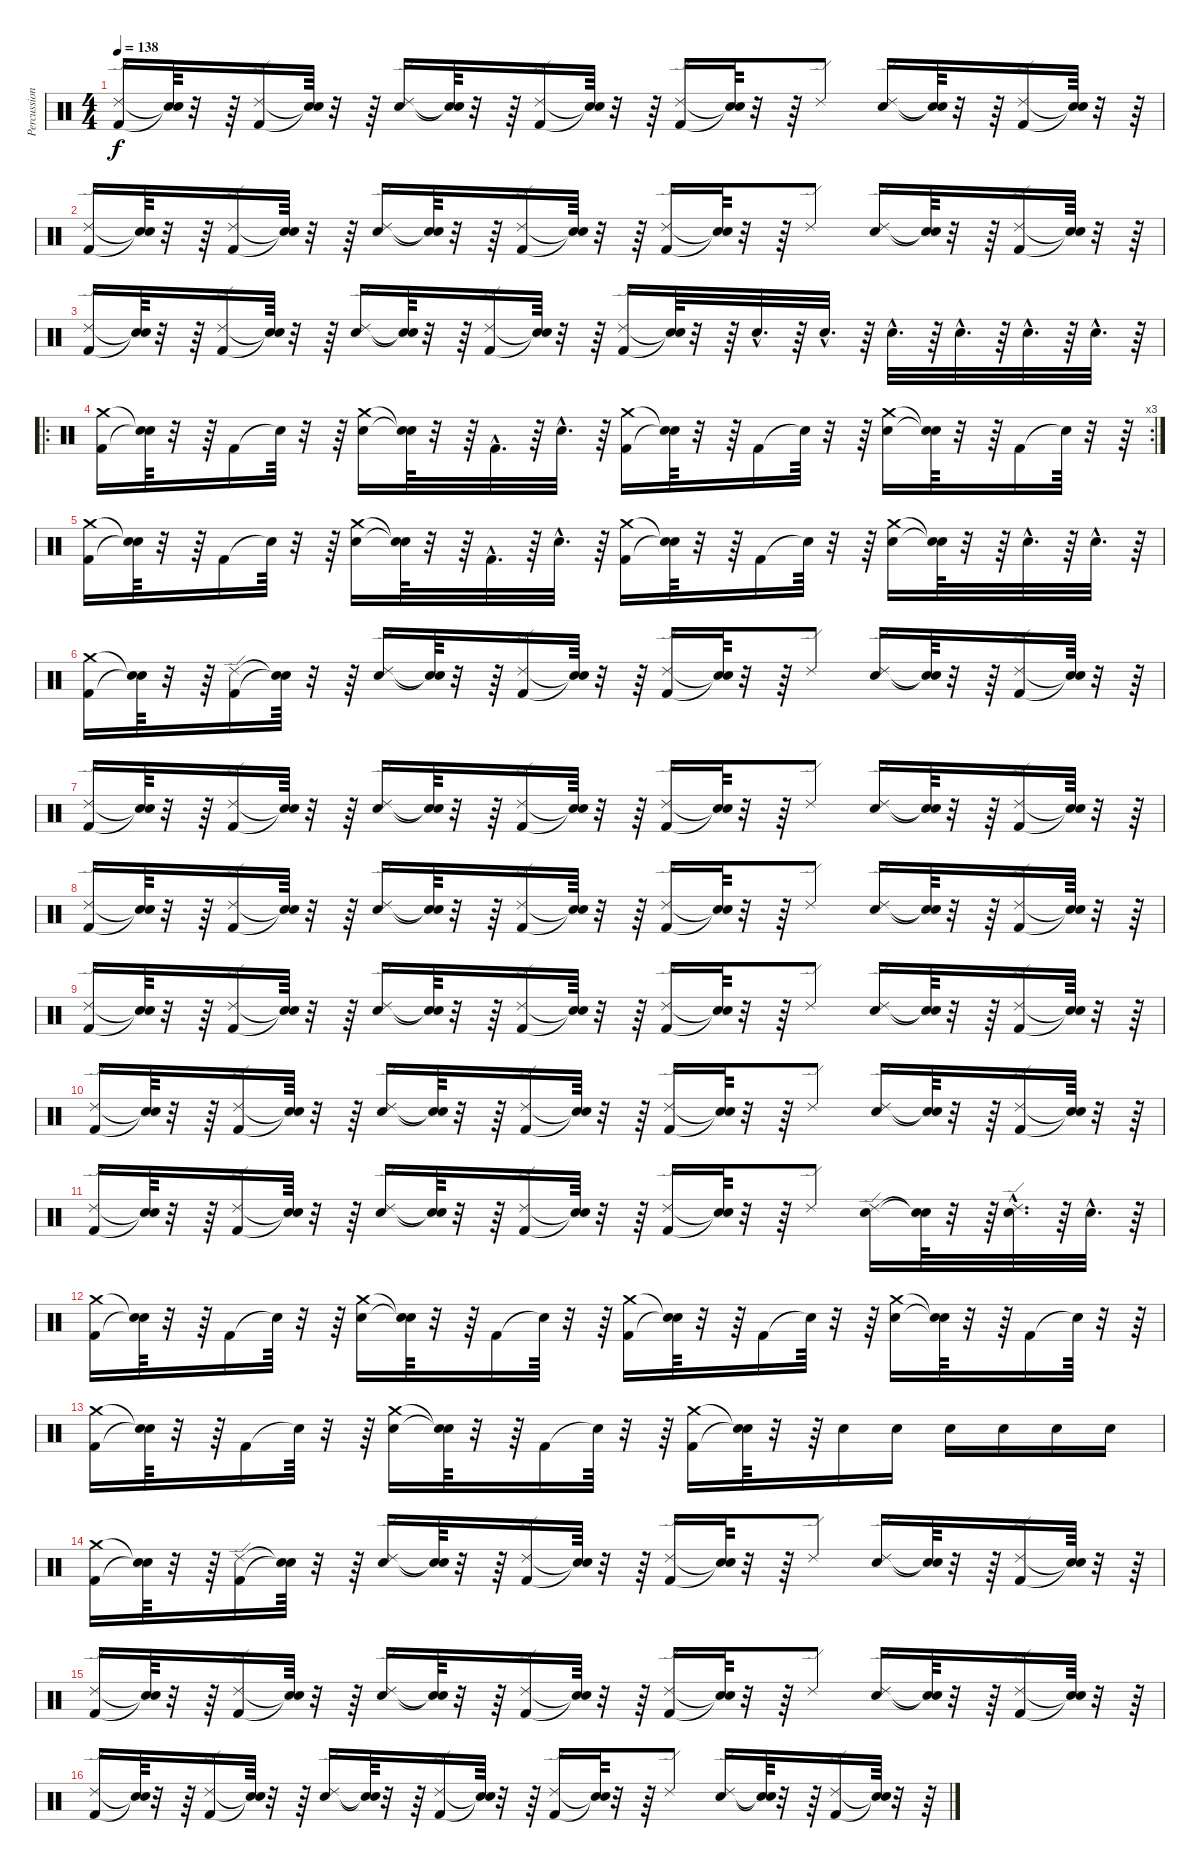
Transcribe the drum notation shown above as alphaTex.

\track ("Percussions" "Percussion") {instrument percussion}
\staff {score}
\articulation defaults
\ts (4 4)
\tempo 138
\clef neutral
\ks c
("Kick (hit) 2" "Ride (edge) 2").16{dy f} ("Snare (hit)"{t} "Snare (hit)"{t}).64 r.32 r.64 ("Kick (hit) 2" "Ride (edge) 2").16 ("Snare (hit)"{t} "Snare (hit)"{t}).64 r.32 r.64 ("Electric Snare (hit)" "Ride (edge) 2").16 ("Snare (hit)"{t} "Snare (hit)"{t}).64 r.32 r.64 ("Kick (hit) 2" "Ride (edge) 2").16 ("Snare (hit)"{t} "Snare (hit)"{t}).64 r.32 r.64 ("Kick (hit) 2" "Ride (edge) 2").16 ("Snare (hit)"{t} "Snare (hit)"{t}).64 r.32 r.64 "Ride (edge) 2".8 ("Electric Snare (hit)" "Ride (edge) 2").16 ("Snare (hit)"{t} "Snare (hit)"{t}).64 r.32 r.64 ("Kick (hit) 2" "Ride (edge) 2").16 ("Snare (hit)"{t} "Snare (hit)"{t}).64 r.32 r.64 |
("Kick (hit) 2" "Ride (edge) 2").16 ("Snare (hit)"{t} "Snare (hit)"{t}).64 r.32 r.64 ("Kick (hit) 2" "Ride (edge) 2").16 ("Snare (hit)"{t} "Snare (hit)"{t}).64 r.32 r.64 ("Electric Snare (hit)" "Ride (edge) 2").16 ("Snare (hit)"{t} "Snare (hit)"{t}).64 r.32 r.64 ("Kick (hit) 2" "Ride (edge) 2").16 ("Snare (hit)"{t} "Snare (hit)"{t}).64 r.32 r.64 ("Kick (hit) 2" "Ride (edge) 2").16 ("Snare (hit)"{t} "Snare (hit)"{t}).64 r.32 r.64 "Ride (edge) 2".8 ("Electric Snare (hit)" "Ride (edge) 2").16 ("Snare (hit)"{t} "Snare (hit)"{t}).64 r.32 r.64 ("Kick (hit) 2" "Ride (edge) 2").16 ("Snare (hit)"{t} "Snare (hit)"{t}).64 r.32 r.64 |
("Kick (hit) 2" "Ride (edge) 2").16 ("Snare (hit)"{t} "Snare (hit)"{t}).64 r.32 r.64 ("Kick (hit) 2" "Ride (edge) 2").16 ("Snare (hit)"{t} "Snare (hit)"{t}).64 r.32 r.64 ("Electric Snare (hit)" "Ride (edge) 2").16 ("Snare (hit)"{t} "Snare (hit)"{t}).64 r.32 r.64 ("Kick (hit) 2" "Ride (edge) 2").16 ("Snare (hit)"{t} "Snare (hit)"{t}).64 r.32 r.64 ("Kick (hit) 2" "Ride (edge) 2").16 ("Snare (hit)"{t} "Snare (hit)"{t}).64 r.32 r.64 "Electric Snare (hit)"{hac}.32{d} r.64 "Electric Snare (hit)"{hac}.32{d} r.64 "Electric Snare (hit)"{hac}.32{d} r.64 "Electric Snare (hit)"{hac}.32{d} r.64 "Electric Snare (hit)"{hac}.32{d} r.64 "Electric Snare (hit)"{hac}.32{d} r.64 |
\ro
\rc 3
("Kick (hit) 2" "Crash medium (hit)").16 ("Snare (hit)"{t} "Snare (hit)"{t}).64 r.32 r.64 "Kick (hit) 2".16 "Snare (hit)"{t}.64 r.32 r.64 ("Electric Snare (hit)" "Crash medium (hit)").16 ("Snare (hit)"{t} "Snare (hit)"{t}).64 r.32 r.64 "Kick (hit) 2"{hac}.32{d} r.64 "Electric Snare (hit)"{hac}.32{d} r.64 ("Kick (hit) 2" "Crash medium (hit)").16 ("Snare (hit)"{t} "Snare (hit)"{t}).64 r.32 r.64 "Kick (hit) 2".16 "Snare (hit)"{t}.64 r.32 r.64 ("Electric Snare (hit)" "Crash medium (hit)").16 ("Snare (hit)"{t} "Snare (hit)"{t}).64 r.32 r.64 "Kick (hit) 2".16 "Snare (hit)"{t}.64 r.32 r.64 |
("Kick (hit) 2" "Crash medium (hit)").16 ("Snare (hit)"{t} "Snare (hit)"{t}).64 r.32 r.64 "Kick (hit) 2".16 "Snare (hit)"{t}.64 r.32 r.64 ("Electric Snare (hit)" "Crash medium (hit)").16 ("Snare (hit)"{t} "Snare (hit)"{t}).64 r.32 r.64 "Kick (hit) 2"{hac}.32{d} r.64 "Electric Snare (hit)"{hac}.32{d} r.64 ("Kick (hit) 2" "Crash medium (hit)").16 ("Snare (hit)"{t} "Snare (hit)"{t}).64 r.32 r.64 "Kick (hit) 2".16 "Snare (hit)"{t}.64 r.32 r.64 ("Electric Snare (hit)" "Crash medium (hit)").16 ("Snare (hit)"{t} "Snare (hit)"{t}).64 r.32 r.64 "Electric Snare (hit)"{hac}.32{d} r.64 "Electric Snare (hit)"{hac}.32{d} r.64 |
("Crash medium (hit)" "Kick (hit) 2").16 ("Snare (hit)"{t} "Snare (hit)"{t}).64 r.32 r.64 ("Ride (edge) 2" "Kick (hit) 2").16 ("Snare (hit)"{t} "Snare (hit)"{t}).64 r.32 r.64 ("Ride (edge) 2" "Electric Snare (hit)").16 ("Snare (hit)"{t} "Snare (hit)"{t}).64 r.32 r.64 ("Ride (edge) 2" "Kick (hit) 2").16 ("Snare (hit)"{t} "Snare (hit)"{t}).64 r.32 r.64 ("Ride (edge) 2" "Kick (hit) 2").16 ("Snare (hit)"{t} "Snare (hit)"{t}).64 r.32 r.64 "Ride (edge) 2".8 ("Ride (edge) 2" "Electric Snare (hit)").16 ("Snare (hit)"{t} "Snare (hit)"{t}).64 r.32 r.64 ("Ride (edge) 2" "Kick (hit) 2").16 ("Snare (hit)"{t} "Snare (hit)"{t}).64 r.32 r.64 |
("Ride (edge) 2" "Kick (hit) 2").16 ("Snare (hit)"{t} "Snare (hit)"{t}).64 r.32 r.64 ("Ride (edge) 2" "Kick (hit) 2").16 ("Snare (hit)"{t} "Snare (hit)"{t}).64 r.32 r.64 ("Ride (edge) 2" "Electric Snare (hit)").16 ("Snare (hit)"{t} "Snare (hit)"{t}).64 r.32 r.64 ("Ride (edge) 2" "Kick (hit) 2").16 ("Snare (hit)"{t} "Snare (hit)"{t}).64 r.32 r.64 ("Kick (hit) 2" "Ride (edge) 2").16 ("Snare (hit)"{t} "Snare (hit)"{t}).64 r.32 r.64 "Ride (edge) 2".8 ("Electric Snare (hit)" "Ride (edge) 2").16 ("Snare (hit)"{t} "Snare (hit)"{t}).64 r.32 r.64 ("Kick (hit) 2" "Ride (edge) 2").16 ("Snare (hit)"{t} "Snare (hit)"{t}).64 r.32 r.64 |
("Kick (hit) 2" "Ride (edge) 2").16 ("Snare (hit)"{t} "Snare (hit)"{t}).64 r.32 r.64 ("Kick (hit) 2" "Ride (edge) 2").16 ("Snare (hit)"{t} "Snare (hit)"{t}).64 r.32 r.64 ("Electric Snare (hit)" "Ride (edge) 2").16 ("Snare (hit)"{t} "Snare (hit)"{t}).64 r.32 r.64 ("Kick (hit) 2" "Ride (edge) 2").16 ("Snare (hit)"{t} "Snare (hit)"{t}).64 r.32 r.64 ("Kick (hit) 2" "Ride (edge) 2").16 ("Snare (hit)"{t} "Snare (hit)"{t}).64 r.32 r.64 "Ride (edge) 2".8 ("Electric Snare (hit)" "Ride (edge) 2").16 ("Snare (hit)"{t} "Snare (hit)"{t}).64 r.32 r.64 ("Kick (hit) 2" "Ride (edge) 2").16 ("Snare (hit)"{t} "Snare (hit)"{t}).64 r.32 r.64 |
("Kick (hit) 2" "Ride (edge) 2").16 ("Snare (hit)"{t} "Snare (hit)"{t}).64 r.32 r.64 ("Kick (hit) 2" "Ride (edge) 2").16 ("Snare (hit)"{t} "Snare (hit)"{t}).64 r.32 r.64 ("Electric Snare (hit)" "Ride (edge) 2").16 ("Snare (hit)"{t} "Snare (hit)"{t}).64 r.32 r.64 ("Kick (hit) 2" "Ride (edge) 2").16 ("Snare (hit)"{t} "Snare (hit)"{t}).64 r.32 r.64 ("Kick (hit) 2" "Ride (edge) 2").16 ("Snare (hit)"{t} "Snare (hit)"{t}).64 r.32 r.64 "Ride (edge) 2".8 ("Electric Snare (hit)" "Ride (edge) 2").16 ("Snare (hit)"{t} "Snare (hit)"{t}).64 r.32 r.64 ("Kick (hit) 2" "Ride (edge) 2").16 ("Snare (hit)"{t} "Snare (hit)"{t}).64 r.32 r.64 |
("Kick (hit) 2" "Ride (edge) 2").16 ("Snare (hit)"{t} "Snare (hit)"{t}).64 r.32 r.64 ("Kick (hit) 2" "Ride (edge) 2").16 ("Snare (hit)"{t} "Snare (hit)"{t}).64 r.32 r.64 ("Electric Snare (hit)" "Ride (edge) 2").16 ("Snare (hit)"{t} "Snare (hit)"{t}).64 r.32 r.64 ("Kick (hit) 2" "Ride (edge) 2").16 ("Snare (hit)"{t} "Snare (hit)"{t}).64 r.32 r.64 ("Kick (hit) 2" "Ride (edge) 2").16 ("Snare (hit)"{t} "Snare (hit)"{t}).64 r.32 r.64 "Ride (edge) 2".8 ("Electric Snare (hit)" "Ride (edge) 2").16 ("Snare (hit)"{t} "Snare (hit)"{t}).64 r.32 r.64 ("Kick (hit) 2" "Ride (edge) 2").16 ("Snare (hit)"{t} "Snare (hit)"{t}).64 r.32 r.64 |
("Kick (hit) 2" "Ride (edge) 2").16 ("Snare (hit)"{t} "Snare (hit)"{t}).64 r.32 r.64 ("Kick (hit) 2" "Ride (edge) 2").16 ("Snare (hit)"{t} "Snare (hit)"{t}).64 r.32 r.64 ("Electric Snare (hit)" "Ride (edge) 2").16 ("Snare (hit)"{t} "Snare (hit)"{t}).64 r.32 r.64 ("Kick (hit) 2" "Ride (edge) 2").16 ("Snare (hit)"{t} "Snare (hit)"{t}).64 r.32 r.64 ("Kick (hit) 2" "Ride (edge) 2").16 ("Snare (hit)"{t} "Snare (hit)"{t}).64 r.32 r.64 "Ride (edge) 2".8 ("Electric Snare (hit)" "Ride (edge) 2").16 ("Snare (hit)"{t} "Snare (hit)"{t}).64 r.32 r.64 ("Electric Snare (hit)"{hac} "Ride (edge) 2"{hac}).32{d} r.64 "Electric Snare (hit)"{hac}.32{d} r.64 |
("Crash medium (hit)" "Kick (hit) 2").16 ("Snare (hit)"{t} "Snare (hit)"{t}).64 r.32 r.64 "Kick (hit) 2".16 "Snare (hit)"{t}.64 r.32 r.64 ("Crash medium (hit)" "Electric Snare (hit)").16 ("Snare (hit)"{t} "Snare (hit)"{t}).64 r.32 r.64 "Kick (hit) 2".16 "Snare (hit)"{t}.64 r.32 r.64 ("Crash medium (hit)" "Kick (hit) 2").16 ("Snare (hit)"{t} "Snare (hit)"{t}).64 r.32 r.64 "Kick (hit) 2".16 "Snare (hit)"{t}.64 r.32 r.64 ("Crash medium (hit)" "Electric Snare (hit)").16 ("Snare (hit)"{t} "Snare (hit)"{t}).64 r.32 r.64 "Kick (hit) 2".16 "Snare (hit)"{t}.64 r.32 r.64 |
("Crash medium (hit)" "Kick (hit) 2").16 ("Snare (hit)"{t} "Snare (hit)"{t}).64 r.32 r.64 "Kick (hit) 2".16 "Snare (hit)"{t}.64 r.32 r.64 ("Crash medium (hit)" "Electric Snare (hit)").16 ("Snare (hit)"{t} "Snare (hit)"{t}).64 r.32 r.64 "Kick (hit) 2".16 "Snare (hit)"{t}.64 r.32 r.64 ("Crash medium (hit)" "Kick (hit) 2").16 ("Snare (hit)"{t} "Snare (hit)"{t}).64 r.32 r.64 "Electric Snare (hit)".16 "Electric Snare (hit)".16 "Electric Snare (hit)".16 "Electric Snare (hit)".16 "Electric Snare (hit)".16 "Electric Snare (hit)".16 |
("Crash medium (hit)" "Kick (hit) 2").16 ("Snare (hit)"{t} "Snare (hit)"{t}).64 r.32 r.64 ("Ride (edge) 2" "Kick (hit) 2").16 ("Snare (hit)"{t} "Snare (hit)"{t}).64 r.32 r.64 ("Ride (edge) 2" "Electric Snare (hit)").16 ("Snare (hit)"{t} "Snare (hit)"{t}).64 r.32 r.64 ("Ride (edge) 2" "Kick (hit) 2").16 ("Snare (hit)"{t} "Snare (hit)"{t}).64 r.32 r.64 ("Ride (edge) 2" "Kick (hit) 2").16 ("Snare (hit)"{t} "Snare (hit)"{t}).64 r.32 r.64 "Ride (edge) 2".8 ("Ride (edge) 2" "Electric Snare (hit)").16 ("Snare (hit)"{t} "Snare (hit)"{t}).64 r.32 r.64 ("Ride (edge) 2" "Kick (hit) 2").16 ("Snare (hit)"{t} "Snare (hit)"{t}).64 r.32 r.64 |
("Ride (edge) 2" "Kick (hit) 2").16 ("Snare (hit)"{t} "Snare (hit)"{t}).64 r.32 r.64 ("Ride (edge) 2" "Kick (hit) 2").16 ("Snare (hit)"{t} "Snare (hit)"{t}).64 r.32 r.64 ("Ride (edge) 2" "Electric Snare (hit)").16 ("Snare (hit)"{t} "Snare (hit)"{t}).64 r.32 r.64 ("Ride (edge) 2" "Kick (hit) 2").16 ("Snare (hit)"{t} "Snare (hit)"{t}).64 r.32 r.64 ("Kick (hit) 2" "Ride (edge) 2").16 ("Snare (hit)"{t} "Snare (hit)"{t}).64 r.32 r.64 "Ride (edge) 2".8 ("Electric Snare (hit)" "Ride (edge) 2").16 ("Snare (hit)"{t} "Snare (hit)"{t}).64 r.32 r.64 ("Kick (hit) 2" "Ride (edge) 2").16 ("Snare (hit)"{t} "Snare (hit)"{t}).64 r.32 r.64 |
("Kick (hit) 2" "Ride (edge) 2").16 ("Snare (hit)"{t} "Snare (hit)"{t}).64 r.32 r.64 ("Kick (hit) 2" "Ride (edge) 2").16 ("Snare (hit)"{t} "Snare (hit)"{t}).64 r.32 r.64 ("Electric Snare (hit)" "Ride (edge) 2").16 ("Snare (hit)"{t} "Snare (hit)"{t}).64 r.32 r.64 ("Kick (hit) 2" "Ride (edge) 2").16 ("Snare (hit)"{t} "Snare (hit)"{t}).64 r.32 r.64 ("Kick (hit) 2" "Ride (edge) 2").16 ("Snare (hit)"{t} "Snare (hit)"{t}).64 r.32 r.64 "Ride (edge) 2".8 ("Electric Snare (hit)" "Ride (edge) 2").16 ("Snare (hit)"{t} "Snare (hit)"{t}).64 r.32 r.64 ("Kick (hit) 2" "Ride (edge) 2").16 ("Snare (hit)"{t} "Snare (hit)"{t}).64 r.32 r.64
